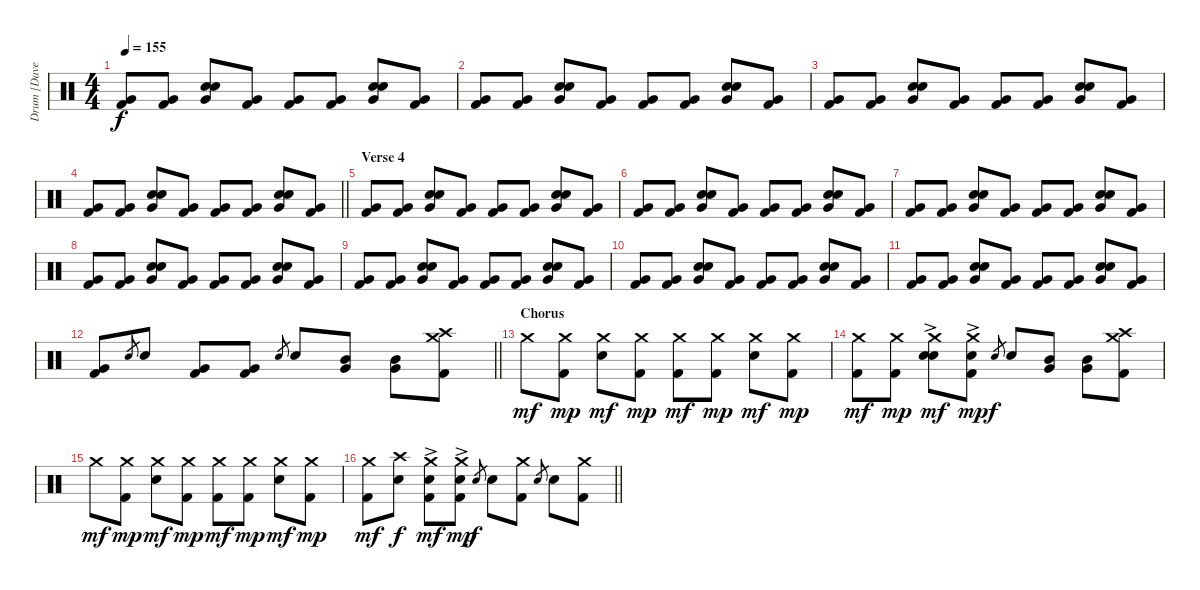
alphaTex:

\track ("Drum [Dave Grohl]" "Drum [Dave") {instrument percussion}
\staff {score}
\articulation defaults
\ts (4 4)
\tempo 155
\clef neutral
\ks c
("Very Low Tom (hit)" "Kick (hit) 2").8{dy f} ("Very Low Tom (hit)" "Kick (hit) 2").8 ("Hand Clap (hit)" "Very Low Tom (hit)" "Snare (hit) 2").8 ("Very Low Tom (hit)" "Kick (hit) 2").8 ("Very Low Tom (hit)" "Kick (hit) 2").8 ("Very Low Tom (hit)" "Kick (hit) 2").8 ("Hand Clap (hit)" "Very Low Tom (hit)" "Snare (hit) 2").8 ("Very Low Tom (hit)" "Kick (hit) 2").8 |
("Very Low Tom (hit)" "Kick (hit) 2").8 ("Very Low Tom (hit)" "Kick (hit) 2").8 ("Hand Clap (hit)" "Very Low Tom (hit)" "Snare (hit) 2").8 ("Very Low Tom (hit)" "Kick (hit) 2").8 ("Very Low Tom (hit)" "Kick (hit) 2").8 ("Very Low Tom (hit)" "Kick (hit) 2").8 ("Hand Clap (hit)" "Very Low Tom (hit)" "Snare (hit) 2").8 ("Very Low Tom (hit)" "Kick (hit) 2").8 |
("Very Low Tom (hit)" "Kick (hit) 2").8 ("Very Low Tom (hit)" "Kick (hit) 2").8 ("Hand Clap (hit)" "Very Low Tom (hit)" "Snare (hit) 2").8 ("Very Low Tom (hit)" "Kick (hit) 2").8 ("Very Low Tom (hit)" "Kick (hit) 2").8 ("Very Low Tom (hit)" "Kick (hit) 2").8 ("Hand Clap (hit)" "Very Low Tom (hit)" "Snare (hit) 2").8 ("Very Low Tom (hit)" "Kick (hit) 2").8 |
\barLineRight lightlight
("Very Low Tom (hit)" "Kick (hit) 2").8 ("Very Low Tom (hit)" "Kick (hit) 2").8 ("Hand Clap (hit)" "Very Low Tom (hit)" "Snare (hit) 2").8 ("Very Low Tom (hit)" "Kick (hit) 2").8 ("Very Low Tom (hit)" "Kick (hit) 2").8 ("Very Low Tom (hit)" "Kick (hit) 2").8 ("Hand Clap (hit)" "Very Low Tom (hit)" "Snare (hit) 2").8 ("Very Low Tom (hit)" "Kick (hit) 2").8 |
\section ("" "Verse 4")
("Very Low Tom (hit)" "Kick (hit) 2").8 ("Very Low Tom (hit)" "Kick (hit) 2").8 ("Hand Clap (hit)" "Very Low Tom (hit)" "Snare (hit) 2").8 ("Very Low Tom (hit)" "Kick (hit) 2").8 ("Very Low Tom (hit)" "Kick (hit) 2").8 ("Very Low Tom (hit)" "Kick (hit) 2").8 ("Hand Clap (hit)" "Very Low Tom (hit)" "Snare (hit) 2").8 ("Very Low Tom (hit)" "Kick (hit) 2").8 |
("Very Low Tom (hit)" "Kick (hit) 2").8 ("Very Low Tom (hit)" "Kick (hit) 2").8 ("Hand Clap (hit)" "Very Low Tom (hit)" "Snare (hit) 2").8 ("Very Low Tom (hit)" "Kick (hit) 2").8 ("Very Low Tom (hit)" "Kick (hit) 2").8 ("Very Low Tom (hit)" "Kick (hit) 2").8 ("Hand Clap (hit)" "Very Low Tom (hit)" "Snare (hit) 2").8 ("Very Low Tom (hit)" "Kick (hit) 2").8 |
("Very Low Tom (hit)" "Kick (hit) 2").8 ("Very Low Tom (hit)" "Kick (hit) 2").8 ("Hand Clap (hit)" "Very Low Tom (hit)" "Snare (hit) 2").8 ("Very Low Tom (hit)" "Kick (hit) 2").8 ("Very Low Tom (hit)" "Kick (hit) 2").8 ("Very Low Tom (hit)" "Kick (hit) 2").8 ("Hand Clap (hit)" "Very Low Tom (hit)" "Snare (hit) 2").8 ("Very Low Tom (hit)" "Kick (hit) 2").8 |
("Very Low Tom (hit)" "Kick (hit) 2").8 ("Very Low Tom (hit)" "Kick (hit) 2").8 ("Hand Clap (hit)" "Very Low Tom (hit)" "Snare (hit) 2").8 ("Very Low Tom (hit)" "Kick (hit) 2").8 ("Very Low Tom (hit)" "Kick (hit) 2").8 ("Very Low Tom (hit)" "Kick (hit) 2").8 ("Hand Clap (hit)" "Very Low Tom (hit)" "Snare (hit) 2").8 ("Very Low Tom (hit)" "Kick (hit) 2").8 |
("Very Low Tom (hit)" "Kick (hit) 2").8 ("Very Low Tom (hit)" "Kick (hit) 2").8 ("Hand Clap (hit)" "Very Low Tom (hit)" "Snare (hit) 2").8 ("Very Low Tom (hit)" "Kick (hit) 2").8 ("Very Low Tom (hit)" "Kick (hit) 2").8 ("Very Low Tom (hit)" "Kick (hit) 2").8 ("Hand Clap (hit)" "Very Low Tom (hit)" "Snare (hit) 2").8 ("Very Low Tom (hit)" "Kick (hit) 2").8 |
("Very Low Tom (hit)" "Kick (hit) 2").8 ("Very Low Tom (hit)" "Kick (hit) 2").8 ("Hand Clap (hit)" "Very Low Tom (hit)" "Snare (hit) 2").8 ("Very Low Tom (hit)" "Kick (hit) 2").8 ("Very Low Tom (hit)" "Kick (hit) 2").8 ("Very Low Tom (hit)" "Kick (hit) 2").8 ("Hand Clap (hit)" "Very Low Tom (hit)" "Snare (hit) 2").8 ("Very Low Tom (hit)" "Kick (hit) 2").8 |
("Very Low Tom (hit)" "Kick (hit) 2").8 ("Very Low Tom (hit)" "Kick (hit) 2").8 ("Hand Clap (hit)" "Very Low Tom (hit)" "Snare (hit) 2").8 ("Very Low Tom (hit)" "Kick (hit) 2").8 ("Very Low Tom (hit)" "Kick (hit) 2").8 ("Very Low Tom (hit)" "Kick (hit) 2").8 ("Hand Clap (hit)" "Very Low Tom (hit)" "Snare (hit) 2").8 ("Very Low Tom (hit)" "Kick (hit) 2").8 |
\barLineRight lightlight
("Very Low Tom (hit)" "Kick (hit) 2").8 "Snare (hit) 2".8{gr} "Snare (hit) 2".8 ("Very Low Tom (hit)" "Kick (hit) 2").8 ("Very Low Tom (hit)" "Kick (hit) 2").8 "Snare (hit) 2".8{gr} "Snare (hit) 2".8 ("Mid Tom (hit)" "Very Low Tom (hit)").8 ("Mid Tom (hit)" "Very Low Tom (hit)").8 ("Crash high (hit)" "Crash medium (hit)" "Kick (hit) 2").8 |
\section ("" "Chorus")
"Crash medium (hit)".8{dy mf} ("Crash medium (hit)" "Kick (hit) 2").8{dy mp} ("Crash medium (hit)" "Snare (hit) 2").8{dy mf} ("Crash medium (hit)" "Kick (hit) 2").8{dy mp} ("Crash medium (hit)" "Kick (hit) 2").8{dy mf} ("Crash medium (hit)" "Kick (hit) 2").8{dy mp} ("Crash medium (hit)" "Snare (hit) 2").8{dy mf} ("Crash medium (hit)" "Kick (hit) 2").8{dy mp} |
("Crash medium (hit)" "Kick (hit) 2").8{dy mf} ("Crash medium (hit)" "Kick (hit) 2").8{dy mp} ("Hand Clap (hit)"{ac} "Crash medium (hit)" "Snare (hit) 2").8{dy mf} ("Hand Clap (hit)"{ac} "Crash medium (hit)" "Kick (hit) 2").8{dy mp} "Snare (hit) 2".8{gr dy f} "Snare (hit) 2".8 ("Mid Tom (hit)" "Very Low Tom (hit)").8 ("Mid Tom (hit)" "Very Low Tom (hit)").8 ("Crash high (hit)" "Crash medium (hit)" "Kick (hit) 2").8 |
"Crash medium (hit)".8{dy mf} ("Crash medium (hit)" "Kick (hit) 2").8{dy mp} ("Crash medium (hit)" "Snare (hit) 2").8{dy mf} ("Crash medium (hit)" "Kick (hit) 2").8{dy mp} ("Crash medium (hit)" "Kick (hit) 2").8{dy mf} ("Crash medium (hit)" "Kick (hit) 2").8{dy mp} ("Crash medium (hit)" "Snare (hit) 2").8{dy mf} ("Crash medium (hit)" "Kick (hit) 2").8{dy mp} |
\barLineRight lightlight
("Crash medium (hit)" "Kick (hit) 2").8{dy mf} ("Crash high (hit)" "Snare (hit) 2").8{dy f} ("Hand Clap (hit)"{ac} "Crash medium (hit)" "Kick (hit) 2").8{dy mf} ("Hand Clap (hit)"{ac} "Crash medium (hit)" "Kick (hit) 2").8{dy mp} "Snare (hit) 2".8{gr dy f} "Snare (hit) 2".8 ("Crash medium (hit)" "Kick (hit) 2").8 "Snare (hit) 2".8{gr} "Snare (hit) 2".8 ("Crash medium (hit)" "Kick (hit) 2").8
